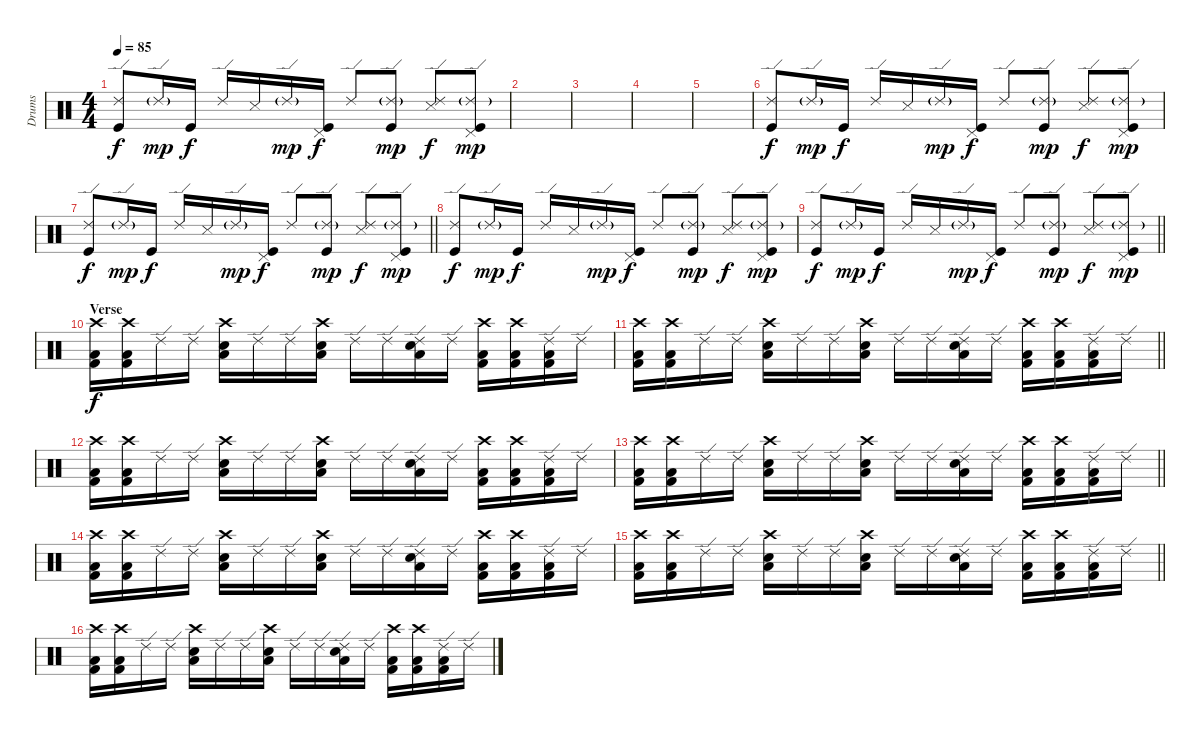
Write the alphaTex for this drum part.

\track ("Drums" "Drums") {instrument percussion}
\staff {score}
\articulation defaults
\ts (4 4)
\tempo 85
\clef neutral
\ks c
("Ride (edge) 2" "Kick (hit)").8{dy f} "Ride (edge) 2"{g}.16{dy mp} "Kick (hit)".16{dy f} "Ride (edge) 2".16 "Snare (side stick) 3".16 "Ride (edge) 2"{g}.16{dy mp} ("Pedal Hi-Hat (hit)" "Kick (hit)").16{dy f} "Ride (edge) 2".8 ("Ride (edge) 2"{g} "Kick (hit)").8{dy mp} ("Ride (edge) 2" "Snare (side stick) 3").8{dy f} ("Ride (edge) 2"{g} "Pedal Hi-Hat (hit)" "Kick (hit)").8{dy mp} |
|
|
|
|
("Ride (edge) 2" "Kick (hit)").8{dy f} "Ride (edge) 2"{g}.16{dy mp} "Kick (hit)".16{dy f} "Ride (edge) 2".16 "Snare (side stick) 3".16 "Ride (edge) 2"{g}.16{dy mp} ("Pedal Hi-Hat (hit)" "Kick (hit)").16{dy f} "Ride (edge) 2".8 ("Ride (edge) 2"{g} "Kick (hit)").8{dy mp} ("Ride (edge) 2" "Snare (side stick) 3").8{dy f} ("Ride (edge) 2"{g} "Pedal Hi-Hat (hit)" "Kick (hit)").8{dy mp} |
\barLineRight lightlight
("Ride (edge) 2" "Kick (hit)").8{dy f} "Ride (edge) 2"{g}.16{dy mp} "Kick (hit)".16{dy f} "Ride (edge) 2".16 "Snare (side stick) 3".16 "Ride (edge) 2"{g}.16{dy mp} ("Pedal Hi-Hat (hit)" "Kick (hit)").16{dy f} "Ride (edge) 2".8 ("Ride (edge) 2"{g} "Kick (hit)").8{dy mp} ("Ride (edge) 2" "Snare (side stick) 3").8{dy f} ("Ride (edge) 2"{g} "Pedal Hi-Hat (hit)" "Kick (hit)").8{dy mp} |
("Ride (edge) 2" "Kick (hit)").8{dy f} "Ride (edge) 2"{g}.16{dy mp} "Kick (hit)".16{dy f} "Ride (edge) 2".16 "Snare (side stick) 3".16 "Ride (edge) 2"{g}.16{dy mp} ("Pedal Hi-Hat (hit)" "Kick (hit)").16{dy f} "Ride (edge) 2".8 ("Ride (edge) 2"{g} "Kick (hit)").8{dy mp} ("Ride (edge) 2" "Snare (side stick) 3").8{dy f} ("Ride (edge) 2"{g} "Pedal Hi-Hat (hit)" "Kick (hit)").8{dy mp} |
\barLineRight lightlight
("Ride (edge) 2" "Kick (hit)").8{dy f} "Ride (edge) 2"{g}.16{dy mp} "Kick (hit)".16{dy f} "Ride (edge) 2".16 "Snare (side stick) 3".16 "Ride (edge) 2"{g}.16{dy mp} ("Pedal Hi-Hat (hit)" "Kick (hit)").16{dy f} "Ride (edge) 2".8 ("Ride (edge) 2"{g} "Kick (hit)").8{dy mp} ("Ride (edge) 2" "Snare (side stick) 3").8{dy f} ("Ride (edge) 2"{g} "Pedal Hi-Hat (hit)" "Kick (hit)").8{dy mp} |
\section ("" "Verse")
("Crash high (hit)" "Low Floor Tom (hit)" "Kick (hit) 2").16{dy f} ("Crash high (hit)" "Low Floor Tom (hit)" "Kick (hit) 2").16 "Ride (edge) 2".16 "Ride (edge) 2".16 ("Crash high (hit)" "Low Floor Tom (hit)" "Snare (hit) 2").16 "Ride (edge) 2".16 "Ride (edge) 2".16 ("Crash high (hit)" "Low Floor Tom (hit)" "Snare (hit) 2").16 "Ride (edge) 2".16 "Ride (edge) 2".16 ("Ride (edge) 2" "Low Floor Tom (hit)" "Snare (hit) 2").16 "Ride (edge) 2".16 ("Crash high (hit)" "Low Floor Tom (hit)" "Kick (hit) 2").16 ("Crash high (hit)" "Low Floor Tom (hit)" "Kick (hit) 2").16 ("Ride (edge) 2" "Low Floor Tom (hit)" "Kick (hit) 2").16 "Ride (edge) 2".16 |
\barLineRight lightlight
("Crash high (hit)" "Low Floor Tom (hit)" "Kick (hit) 2").16 ("Crash high (hit)" "Low Floor Tom (hit)" "Kick (hit) 2").16 "Ride (edge) 2".16 "Ride (edge) 2".16 ("Crash high (hit)" "Low Floor Tom (hit)" "Snare (hit) 2").16 "Ride (edge) 2".16 "Ride (edge) 2".16 ("Crash high (hit)" "Low Floor Tom (hit)" "Snare (hit) 2").16 "Ride (edge) 2".16 "Ride (edge) 2".16 ("Ride (edge) 2" "Low Floor Tom (hit)" "Snare (hit) 2").16 "Ride (edge) 2".16 ("Crash high (hit)" "Low Floor Tom (hit)" "Kick (hit) 2").16 ("Crash high (hit)" "Low Floor Tom (hit)" "Kick (hit) 2").16 ("Ride (edge) 2" "Low Floor Tom (hit)" "Kick (hit) 2").16 "Ride (edge) 2".16 |
("Crash high (hit)" "Low Floor Tom (hit)" "Kick (hit) 2").16 ("Crash high (hit)" "Low Floor Tom (hit)" "Kick (hit) 2").16 "Ride (edge) 2".16 "Ride (edge) 2".16 ("Crash high (hit)" "Low Floor Tom (hit)" "Snare (hit) 2").16 "Ride (edge) 2".16 "Ride (edge) 2".16 ("Crash high (hit)" "Low Floor Tom (hit)" "Snare (hit) 2").16 "Ride (edge) 2".16 "Ride (edge) 2".16 ("Ride (edge) 2" "Low Floor Tom (hit)" "Snare (hit) 2").16 "Ride (edge) 2".16 ("Crash high (hit)" "Low Floor Tom (hit)" "Kick (hit) 2").16 ("Crash high (hit)" "Low Floor Tom (hit)" "Kick (hit) 2").16 ("Ride (edge) 2" "Low Floor Tom (hit)" "Kick (hit) 2").16 "Ride (edge) 2".16 |
\barLineRight lightlight
("Crash high (hit)" "Low Floor Tom (hit)" "Kick (hit) 2").16 ("Crash high (hit)" "Low Floor Tom (hit)" "Kick (hit) 2").16 "Ride (edge) 2".16 "Ride (edge) 2".16 ("Crash high (hit)" "Low Floor Tom (hit)" "Snare (hit) 2").16 "Ride (edge) 2".16 "Ride (edge) 2".16 ("Crash high (hit)" "Low Floor Tom (hit)" "Snare (hit) 2").16 "Ride (edge) 2".16 "Ride (edge) 2".16 ("Ride (edge) 2" "Low Floor Tom (hit)" "Snare (hit) 2").16 "Ride (edge) 2".16 ("Crash high (hit)" "Low Floor Tom (hit)" "Kick (hit) 2").16 ("Crash high (hit)" "Low Floor Tom (hit)" "Kick (hit) 2").16 ("Ride (edge) 2" "Low Floor Tom (hit)" "Kick (hit) 2").16 "Ride (edge) 2".16 |
("Crash high (hit)" "Low Floor Tom (hit)" "Kick (hit) 2").16 ("Crash high (hit)" "Low Floor Tom (hit)" "Kick (hit) 2").16 "Ride (edge) 2".16 "Ride (edge) 2".16 ("Crash high (hit)" "Low Floor Tom (hit)" "Snare (hit) 2").16 "Ride (edge) 2".16 "Ride (edge) 2".16 ("Crash high (hit)" "Low Floor Tom (hit)" "Snare (hit) 2").16 "Ride (edge) 2".16 "Ride (edge) 2".16 ("Ride (edge) 2" "Low Floor Tom (hit)" "Snare (hit) 2").16 "Ride (edge) 2".16 ("Crash high (hit)" "Low Floor Tom (hit)" "Kick (hit) 2").16 ("Crash high (hit)" "Low Floor Tom (hit)" "Kick (hit) 2").16 ("Ride (edge) 2" "Low Floor Tom (hit)" "Kick (hit) 2").16 "Ride (edge) 2".16 |
\barLineRight lightlight
("Crash high (hit)" "Low Floor Tom (hit)" "Kick (hit) 2").16 ("Crash high (hit)" "Low Floor Tom (hit)" "Kick (hit) 2").16 "Ride (edge) 2".16 "Ride (edge) 2".16 ("Crash high (hit)" "Low Floor Tom (hit)" "Snare (hit) 2").16 "Ride (edge) 2".16 "Ride (edge) 2".16 ("Crash high (hit)" "Low Floor Tom (hit)" "Snare (hit) 2").16 "Ride (edge) 2".16 "Ride (edge) 2".16 ("Ride (edge) 2" "Low Floor Tom (hit)" "Snare (hit) 2").16 "Ride (edge) 2".16 ("Crash high (hit)" "Low Floor Tom (hit)" "Kick (hit) 2").16 ("Crash high (hit)" "Low Floor Tom (hit)" "Kick (hit) 2").16 ("Ride (edge) 2" "Low Floor Tom (hit)" "Kick (hit) 2").16 "Ride (edge) 2".16 |
("Crash high (hit)" "Low Floor Tom (hit)" "Kick (hit) 2").16 ("Crash high (hit)" "Low Floor Tom (hit)" "Kick (hit) 2").16 "Ride (edge) 2".16 "Ride (edge) 2".16 ("Crash high (hit)" "Low Floor Tom (hit)" "Snare (hit) 2").16 "Ride (edge) 2".16 "Ride (edge) 2".16 ("Crash high (hit)" "Low Floor Tom (hit)" "Snare (hit) 2").16 "Ride (edge) 2".16 "Ride (edge) 2".16 ("Ride (edge) 2" "Low Floor Tom (hit)" "Snare (hit) 2").16 "Ride (edge) 2".16 ("Crash high (hit)" "Low Floor Tom (hit)" "Kick (hit) 2").16 ("Crash high (hit)" "Low Floor Tom (hit)" "Kick (hit) 2").16 ("Ride (edge) 2" "Low Floor Tom (hit)" "Kick (hit) 2").16 "Ride (edge) 2".16
